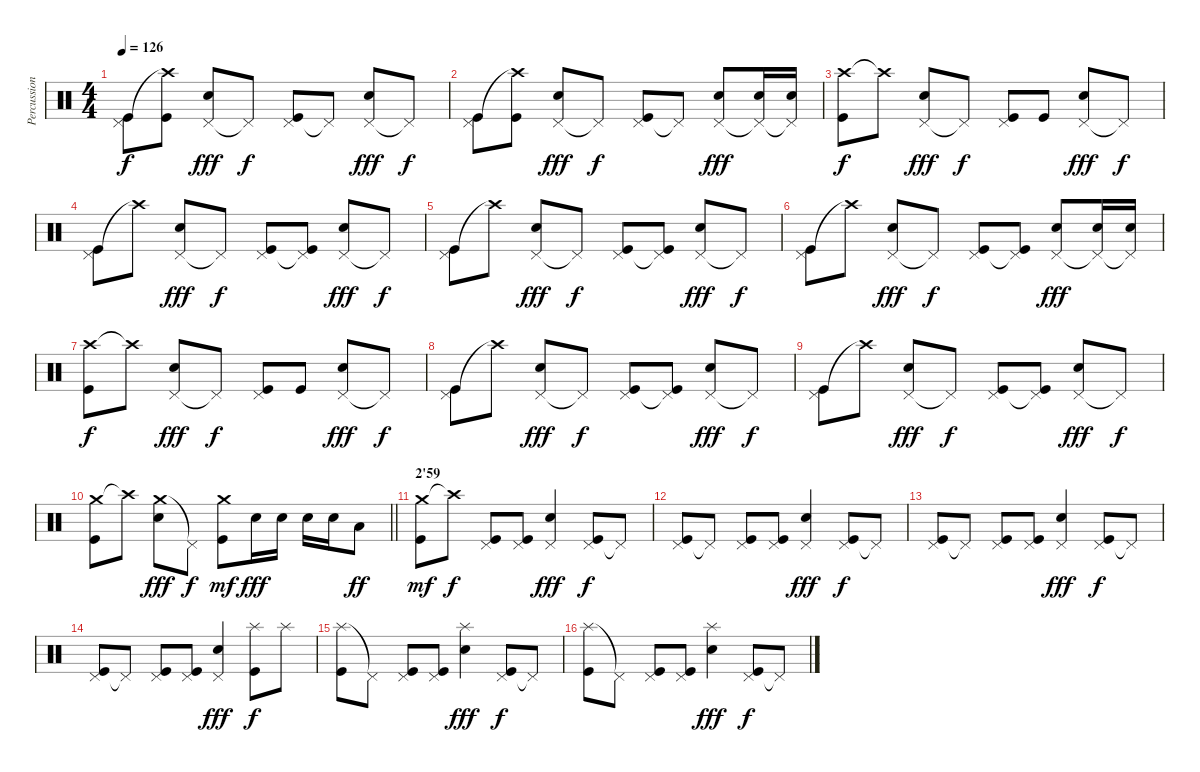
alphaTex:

\track ("Percussions" "Percussion") {instrument percussion}
\staff {score}
\articulation defaults
\ts (4 4)
\tempo 126
\clef neutral
\ks c
("Pedal Hi-Hat (hit)" "Kick (hit)").8{dy f} ("Crash high (hit)"{t} "Kick (hit)").8 ("Pedal Hi-Hat (hit)" "Snare (hit) 2").8{dy fff} "Pedal Hi-Hat (hit)"{t}.8{dy f} ("Pedal Hi-Hat (hit)" "Kick (hit)").8 "Pedal Hi-Hat (hit)"{t}.8 ("Pedal Hi-Hat (hit)" "Snare (hit) 2").8{dy fff} "Pedal Hi-Hat (hit)"{t}.8{dy f} |
("Pedal Hi-Hat (hit)" "Kick (hit)").8 ("Crash high (hit)"{t} "Kick (hit)").8 ("Pedal Hi-Hat (hit)" "Snare (hit) 2").8{dy fff} "Pedal Hi-Hat (hit)"{t}.8{dy f} ("Pedal Hi-Hat (hit)" "Kick (hit)").8 "Pedal Hi-Hat (hit)"{t}.8 ("Pedal Hi-Hat (hit)" "Snare (hit) 2").8{dy fff} ("Pedal Hi-Hat (hit)"{t} "Snare (hit) 2").16 ("Pedal Hi-Hat (hit)"{t} "Snare (hit) 2").16 |
("Crash high (hit)" "Kick (hit)").8{dy f} "Crash high (hit)"{t}.8 ("Pedal Hi-Hat (hit)" "Snare (hit) 2").8{dy fff} "Pedal Hi-Hat (hit)"{t}.8{dy f} ("Pedal Hi-Hat (hit)" "Kick (hit)").8 "Kick (hit)".8 ("Pedal Hi-Hat (hit)" "Snare (hit) 2").8{dy fff} "Pedal Hi-Hat (hit)"{t}.8{dy f} |
("Pedal Hi-Hat (hit)" "Kick (hit)").8 "Crash high (hit)"{t}.8 ("Pedal Hi-Hat (hit)" "Snare (hit) 2").8{dy fff} "Pedal Hi-Hat (hit)"{t}.8{dy f} ("Pedal Hi-Hat (hit)" "Kick (hit)").8 ("Pedal Hi-Hat (hit)"{t} "Kick (hit)").8 ("Pedal Hi-Hat (hit)" "Snare (hit) 2").8{dy fff} "Pedal Hi-Hat (hit)"{t}.8{dy f} |
("Pedal Hi-Hat (hit)" "Kick (hit)").8 "Crash high (hit)"{t}.8 ("Pedal Hi-Hat (hit)" "Snare (hit) 2").8{dy fff} "Pedal Hi-Hat (hit)"{t}.8{dy f} ("Pedal Hi-Hat (hit)" "Kick (hit)").8 ("Pedal Hi-Hat (hit)"{t} "Kick (hit)").8 ("Pedal Hi-Hat (hit)" "Snare (hit) 2").8{dy fff} "Pedal Hi-Hat (hit)"{t}.8{dy f} |
("Pedal Hi-Hat (hit)" "Kick (hit)").8 "Crash high (hit)"{t}.8 ("Pedal Hi-Hat (hit)" "Snare (hit) 2").8{dy fff} "Pedal Hi-Hat (hit)"{t}.8{dy f} ("Pedal Hi-Hat (hit)" "Kick (hit)").8 ("Pedal Hi-Hat (hit)"{t} "Kick (hit)").8 ("Pedal Hi-Hat (hit)" "Snare (hit) 2").8{dy fff} ("Pedal Hi-Hat (hit)"{t} "Snare (hit) 2").16 ("Pedal Hi-Hat (hit)"{t} "Snare (hit) 2").16 |
("Crash high (hit)" "Kick (hit)").8{dy f} "Crash high (hit)"{t}.8 ("Pedal Hi-Hat (hit)" "Snare (hit) 2").8{dy fff} "Pedal Hi-Hat (hit)"{t}.8{dy f} ("Pedal Hi-Hat (hit)" "Kick (hit)").8 "Kick (hit)".8 ("Pedal Hi-Hat (hit)" "Snare (hit) 2").8{dy fff} "Pedal Hi-Hat (hit)"{t}.8{dy f} |
("Pedal Hi-Hat (hit)" "Kick (hit)").8 "Crash high (hit)"{t}.8 ("Pedal Hi-Hat (hit)" "Snare (hit) 2").8{dy fff} "Pedal Hi-Hat (hit)"{t}.8{dy f} ("Pedal Hi-Hat (hit)" "Kick (hit)").8 ("Pedal Hi-Hat (hit)"{t} "Kick (hit)").8 ("Pedal Hi-Hat (hit)" "Snare (hit) 2").8{dy fff} "Pedal Hi-Hat (hit)"{t}.8{dy f} |
("Pedal Hi-Hat (hit)" "Kick (hit)").8 "Crash high (hit)"{t}.8 ("Pedal Hi-Hat (hit)" "Snare (hit) 2").8{dy fff} "Pedal Hi-Hat (hit)"{t}.8{dy f} ("Pedal Hi-Hat (hit)" "Kick (hit)").8 ("Pedal Hi-Hat (hit)"{t} "Kick (hit)").8 ("Pedal Hi-Hat (hit)" "Snare (hit) 2").8{dy fff} "Pedal Hi-Hat (hit)"{t}.8{dy f} |
\barLineRight lightlight
("Crash medium (hit)" "Kick (hit)").8 "Crash high (hit)"{t}.8 ("Crash medium (hit)" "Snare (hit) 2").8{dy fff} "Pedal Hi-Hat (hit)"{t}.8{dy f} ("Crash medium (hit)" "Kick (hit)").8{dy mf} "Snare (hit) 2".16{dy fff} "Snare (hit) 2".16 "Snare (hit) 2".16 "Snare (hit) 2".16 "Low Floor Tom (hit)".8{dy ff} |
\section ("" "2'59")
("Crash medium (hit)" "Kick (hit)").8{dy mf} "Crash high (hit)"{t}.8{dy f} ("Pedal Hi-Hat (hit)" "Kick (hit)").8 ("Pedal Hi-Hat (hit)" "Kick (hit)").8 ("Pedal Hi-Hat (hit)" "Snare (hit) 2").4{dy fff} ("Pedal Hi-Hat (hit)" "Kick (hit)").8{dy f} "Pedal Hi-Hat (hit)"{t}.8 |
("Pedal Hi-Hat (hit)" "Kick (hit)").8 "Pedal Hi-Hat (hit)"{t}.8 ("Pedal Hi-Hat (hit)" "Kick (hit)").8 ("Pedal Hi-Hat (hit)" "Kick (hit)").8 ("Pedal Hi-Hat (hit)" "Snare (hit) 2").4{dy fff} ("Pedal Hi-Hat (hit)" "Kick (hit)").8{dy f} "Pedal Hi-Hat (hit)"{t}.8 |
("Pedal Hi-Hat (hit)" "Kick (hit)").8 "Pedal Hi-Hat (hit)"{t}.8 ("Pedal Hi-Hat (hit)" "Kick (hit)").8 ("Pedal Hi-Hat (hit)" "Kick (hit)").8 ("Pedal Hi-Hat (hit)" "Snare (hit) 2").4{dy fff} ("Pedal Hi-Hat (hit)" "Kick (hit)").8{dy f} "Pedal Hi-Hat (hit)"{t}.8 |
("Pedal Hi-Hat (hit)" "Kick (hit)").8 "Pedal Hi-Hat (hit)"{t}.8 ("Pedal Hi-Hat (hit)" "Kick (hit)").8 ("Pedal Hi-Hat (hit)" "Kick (hit)").8 ("Pedal Hi-Hat (hit)" "Snare (hit) 2").4{dy fff} ("Splash (hit)" "Kick (hit)").8{dy f} "Splash (hit)".8 |
("Splash (hit)" "Kick (hit)").8 "Pedal Hi-Hat (hit)"{t}.8 ("Pedal Hi-Hat (hit)" "Kick (hit)").8 ("Pedal Hi-Hat (hit)" "Kick (hit)").8 ("Splash (hit)" "Snare (hit) 2").4{dy fff} ("Pedal Hi-Hat (hit)" "Kick (hit)").8{dy f} "Pedal Hi-Hat (hit)"{t}.8 |
("Splash (hit)" "Kick (hit)").8 "Pedal Hi-Hat (hit)"{t}.8 ("Pedal Hi-Hat (hit)" "Kick (hit)").8 ("Pedal Hi-Hat (hit)" "Kick (hit)").8 ("Splash (hit)" "Snare (hit) 2").4{dy fff} ("Pedal Hi-Hat (hit)" "Kick (hit)").8{dy f} "Pedal Hi-Hat (hit)"{t}.8
